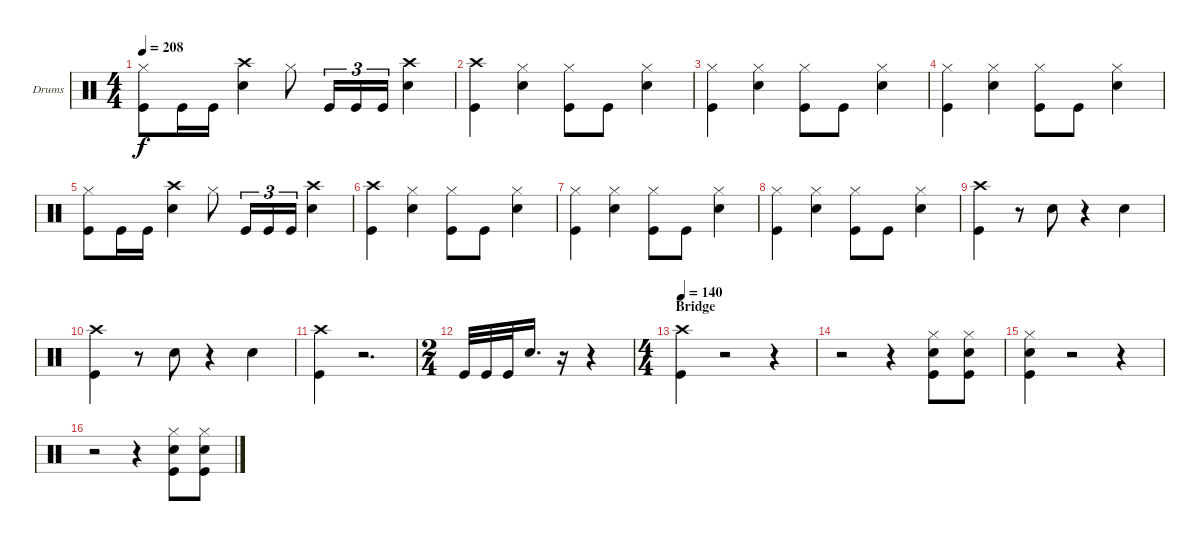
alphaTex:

\defaultSystemsLayout 4
\bracketExtendMode groupsimilarinstruments
\firstSystemTrackNameOrientation horizontal
\otherSystemsTrackNameOrientation horizontal
\track ("Drums" "Drums") {instrument percussion}
\staff {score}
\articulation defaults
\ts (4 4)
\tempo 208
\clef neutral
\ks c
("Hi-Hat (closed)" "Kick (hit)").8{dy f} "Kick (hit)".16 "Kick (hit)".16 ("Snare (hit) 2" "Crash high (hit)").4 "Hi-Hat (closed)".8 "Kick (hit)".16{tu (3 2)} "Kick (hit)".16{tu (3 2)} "Kick (hit)".16{tu (3 2)} ("Snare (hit) 2" "Crash high (hit)").4 |
("Crash high (hit)" "Kick (hit)").4 ("Snare (hit) 2" "Hi-Hat (closed)").4 ("Kick (hit)" "Hi-Hat (closed)").8 "Kick (hit)".8 ("Snare (hit) 2" "Hi-Hat (closed)").4 |
("Kick (hit)" "Hi-Hat (closed)").4 ("Snare (hit) 2" "Hi-Hat (closed)").4 ("Hi-Hat (closed)" "Kick (hit)").8 "Kick (hit)".8 ("Snare (hit) 2" "Hi-Hat (closed)").4 |
("Kick (hit)" "Hi-Hat (closed)").4 ("Snare (hit) 2" "Hi-Hat (closed)").4 ("Hi-Hat (closed)" "Kick (hit)").8 "Kick (hit)".8 ("Snare (hit) 2" "Hi-Hat (closed)").4 |
("Hi-Hat (closed)" "Kick (hit)").8 "Kick (hit)".16 "Kick (hit)".16 ("Snare (hit) 2" "Crash high (hit)").4 "Hi-Hat (closed)".8 "Kick (hit)".16{tu (3 2)} "Kick (hit)".16{tu (3 2)} "Kick (hit)".16{tu (3 2)} ("Snare (hit) 2" "Crash high (hit)").4 |
("Crash high (hit)" "Kick (hit)").4 ("Snare (hit) 2" "Hi-Hat (closed)").4 ("Kick (hit)" "Hi-Hat (closed)").8 "Kick (hit)".8 ("Snare (hit) 2" "Hi-Hat (closed)").4 |
("Kick (hit)" "Hi-Hat (closed)").4 ("Snare (hit) 2" "Hi-Hat (closed)").4 ("Hi-Hat (closed)" "Kick (hit)").8 "Kick (hit)".8 ("Snare (hit) 2" "Hi-Hat (closed)").4 |
("Kick (hit)" "Hi-Hat (closed)").4 ("Snare (hit) 2" "Hi-Hat (closed)").4 ("Kick (hit)" "Hi-Hat (closed)").8 "Kick (hit)".8 ("Snare (hit) 2" "Hi-Hat (closed)").4 |
("Kick (hit)" "Crash high (hit)").4 r.8 "Snare (hit) 2".8 r.4 "Snare (hit) 2".4 |
("Kick (hit)" "Crash high (hit)").4 r.8 "Snare (hit) 2".8 r.4 "Snare (hit) 2".4 |
("Kick (hit)" "Crash high (hit)").4 r.2{d} |
\ts (2 4)
"Kick (hit)".32 "Kick (hit)".32 "Kick (hit)".32 "Snare (hit) 2".16{d} r.16 r.4 |
\ts (4 4)
\section ("" "Bridge")
\tempo 140
("Kick (hit)" "Crash high (hit)").4 r.2 r.4 |
r.2 r.4 ("Kick (hit)" "Snare (hit) 2" "Hi-Hat (closed)").8 ("Hi-Hat (closed)" "Snare (hit) 2" "Kick (hit)").8 |
("Kick (hit)" "Snare (hit) 2" "Hi-Hat (closed)").4 r.2 r.4 |
r.2 r.4 ("Kick (hit)" "Snare (hit) 2" "Hi-Hat (closed)").8 ("Hi-Hat (closed)" "Snare (hit) 2" "Kick (hit)").8
